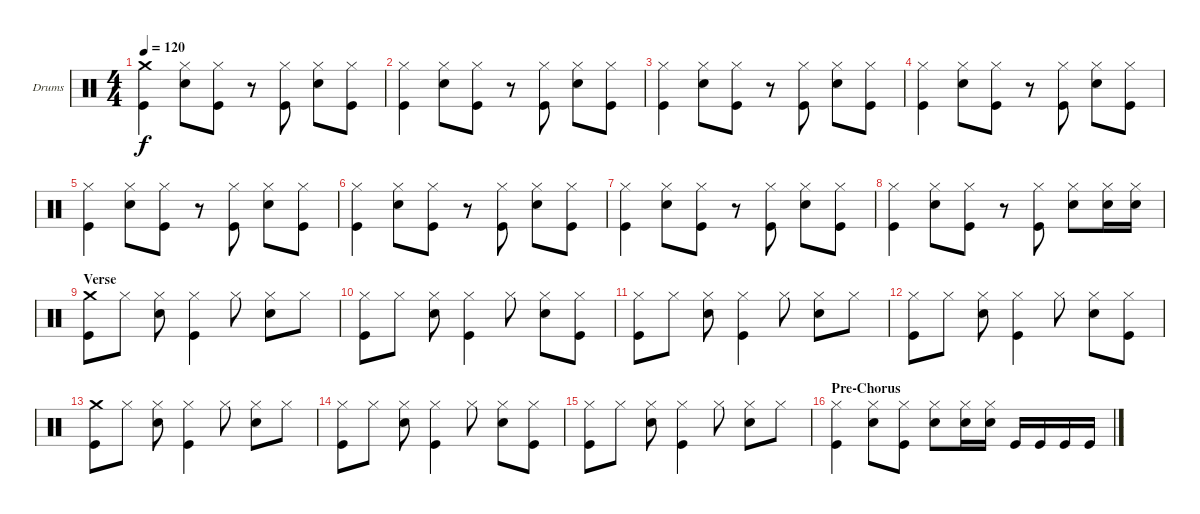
\defaultSystemsLayout 4
\bracketExtendMode groupsimilarinstruments
\firstSystemTrackNameOrientation horizontal
\otherSystemsTrackNameOrientation horizontal
\track ("Drum" "Drums") {instrument percussion}
\staff {score}
\articulation defaults
\ts (4 4)
\tempo 120
\clef neutral
\ks c
("Crash medium (hit)" "Kick (hit)").4{dy f} ("Hi-Hat (closed)" "Snare (hit) 2").8 ("Hi-Hat (closed)" "Kick (hit)").8 r.8 ("Hi-Hat (closed)" "Kick (hit)").8 ("Hi-Hat (closed)" "Snare (hit) 2").8 ("Hi-Hat (closed)" "Kick (hit)").8 |
("Hi-Hat (closed)" "Kick (hit)").4 ("Hi-Hat (closed)" "Snare (hit) 2").8 ("Hi-Hat (closed)" "Kick (hit)").8 r.8 ("Hi-Hat (closed)" "Kick (hit)").8 ("Hi-Hat (closed)" "Snare (hit) 2").8 ("Hi-Hat (closed)" "Kick (hit)").8 |
("Hi-Hat (closed)" "Kick (hit)").4 ("Hi-Hat (closed)" "Snare (hit) 2").8 ("Hi-Hat (closed)" "Kick (hit)").8 r.8 ("Hi-Hat (closed)" "Kick (hit)").8 ("Hi-Hat (closed)" "Snare (hit) 2").8 ("Hi-Hat (closed)" "Kick (hit)").8 |
("Hi-Hat (closed)" "Kick (hit)").4 ("Hi-Hat (closed)" "Snare (hit) 2").8 ("Hi-Hat (closed)" "Kick (hit)").8 r.8 ("Hi-Hat (closed)" "Kick (hit)").8 ("Hi-Hat (closed)" "Snare (hit) 2").8 ("Hi-Hat (closed)" "Kick (hit)").8 |
("Hi-Hat (closed)" "Kick (hit)").4 ("Hi-Hat (closed)" "Snare (hit) 2").8 ("Hi-Hat (closed)" "Kick (hit)").8 r.8 ("Hi-Hat (closed)" "Kick (hit)").8 ("Hi-Hat (closed)" "Snare (hit) 2").8 ("Hi-Hat (closed)" "Kick (hit)").8 |
("Hi-Hat (closed)" "Kick (hit)").4 ("Hi-Hat (closed)" "Snare (hit) 2").8 ("Hi-Hat (closed)" "Kick (hit)").8 r.8 ("Hi-Hat (closed)" "Kick (hit)").8 ("Hi-Hat (closed)" "Snare (hit) 2").8 ("Hi-Hat (closed)" "Kick (hit)").8 |
("Hi-Hat (closed)" "Kick (hit)").4 ("Hi-Hat (closed)" "Snare (hit) 2").8 ("Hi-Hat (closed)" "Kick (hit)").8 r.8 ("Hi-Hat (closed)" "Kick (hit)").8 ("Hi-Hat (closed)" "Snare (hit) 2").8 ("Hi-Hat (closed)" "Kick (hit)").8 |
("Hi-Hat (closed)" "Kick (hit)").4 ("Hi-Hat (closed)" "Snare (hit) 2").8 ("Hi-Hat (closed)" "Kick (hit)").8 r.8 ("Hi-Hat (closed)" "Kick (hit)").8 ("Hi-Hat (closed)" "Snare (hit) 2").8 ("Hi-Hat (closed)" "Snare (hit) 2").16 ("Hi-Hat (closed)" "Snare (hit) 2").16 |
\section ("" "Verse")
("Crash medium (hit)" "Kick (hit)").8 "Hi-Hat (closed)".8 ("Hi-Hat (closed)" "Snare (hit) 2").8 ("Hi-Hat (closed)" "Kick (hit)").4 "Hi-Hat (closed)".8 ("Hi-Hat (closed)" "Snare (hit) 2").8 "Hi-Hat (closed)".8 |
("Hi-Hat (closed)" "Kick (hit)").8 "Hi-Hat (closed)".8 ("Hi-Hat (closed)" "Snare (hit) 2").8 ("Hi-Hat (closed)" "Kick (hit)").4 "Hi-Hat (closed)".8 ("Hi-Hat (closed)" "Snare (hit) 2").8 ("Hi-Hat (closed)" "Kick (hit)").8 |
("Hi-Hat (closed)" "Kick (hit)").8 "Hi-Hat (closed)".8 ("Hi-Hat (closed)" "Snare (hit) 2").8 ("Hi-Hat (closed)" "Kick (hit)").4 "Hi-Hat (closed)".8 ("Hi-Hat (closed)" "Snare (hit) 2").8 "Hi-Hat (closed)".8 |
("Hi-Hat (closed)" "Kick (hit)").8 "Hi-Hat (closed)".8 ("Hi-Hat (closed)" "Snare (hit) 2").8 ("Hi-Hat (closed)" "Kick (hit)").4 "Hi-Hat (closed)".8 ("Hi-Hat (closed)" "Snare (hit) 2").8 ("Hi-Hat (closed)" "Kick (hit)").8 |
("Crash medium (hit)" "Kick (hit)").8 "Hi-Hat (closed)".8 ("Hi-Hat (closed)" "Snare (hit) 2").8 ("Hi-Hat (closed)" "Kick (hit)").4 "Hi-Hat (closed)".8 ("Hi-Hat (closed)" "Snare (hit) 2").8 "Hi-Hat (closed)".8 |
("Hi-Hat (closed)" "Kick (hit)").8 "Hi-Hat (closed)".8 ("Hi-Hat (closed)" "Snare (hit) 2").8 ("Hi-Hat (closed)" "Kick (hit)").4 "Hi-Hat (closed)".8 ("Hi-Hat (closed)" "Snare (hit) 2").8 ("Hi-Hat (closed)" "Kick (hit)").8 |
("Hi-Hat (closed)" "Kick (hit)").8 "Hi-Hat (closed)".8 ("Hi-Hat (closed)" "Snare (hit) 2").8 ("Hi-Hat (closed)" "Kick (hit)").4 "Hi-Hat (closed)".8 ("Hi-Hat (closed)" "Snare (hit) 2").8 "Hi-Hat (closed)".8 |
\section ("" "Pre-Chorus")
("Hi-Hat (closed)" "Kick (hit)").4 ("Hi-Hat (closed)" "Snare (hit) 2").8 ("Hi-Hat (closed)" "Kick (hit)").8 ("Hi-Hat (closed)" "Snare (hit) 2").8 ("Hi-Hat (closed)" "Snare (hit) 2").16 ("Hi-Hat (closed)" "Snare (hit) 2").16 "Kick (hit)".16 "Kick (hit)".16 "Kick (hit)".16 "Kick (hit)".16
